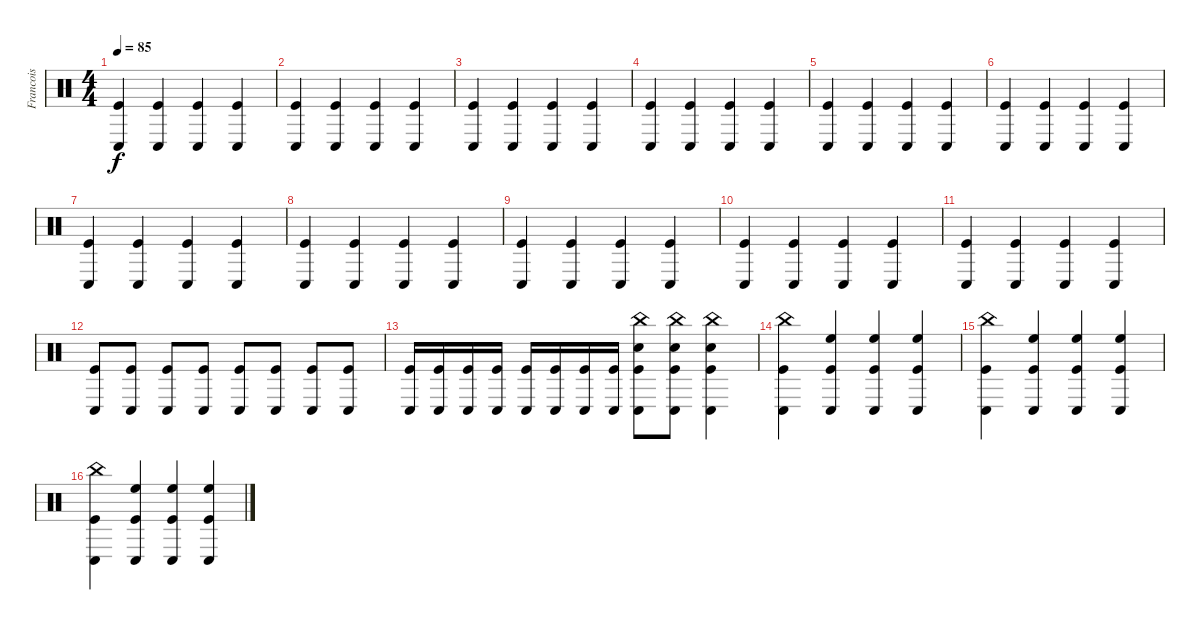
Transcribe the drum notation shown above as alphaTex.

\track ("Francois" "Francois") {instrument percussion}
\staff {score}
\articulation defaults
\ts (4 4)
\tempo 85
\clef neutral
\ks c
("Kick (hit)" "Conga low (hit)").4{dy f} ("Kick (hit)" "Conga low (hit)").4 ("Kick (hit)" "Conga low (hit)").4 ("Kick (hit)" "Conga low (hit)").4 |
("Kick (hit)" "Conga low (hit)").4 ("Kick (hit)" "Conga low (hit)").4 ("Kick (hit)" "Conga low (hit)").4 ("Kick (hit)" "Conga low (hit)").4 |
("Kick (hit)" "Conga low (hit)").4 ("Kick (hit)" "Conga low (hit)").4 ("Kick (hit)" "Conga low (hit)").4 ("Kick (hit)" "Conga low (hit)").4 |
("Kick (hit)" "Conga low (hit)").4 ("Kick (hit)" "Conga low (hit)").4 ("Kick (hit)" "Conga low (hit)").4 ("Kick (hit)" "Conga low (hit)").4 |
("Kick (hit)" "Conga low (hit)").4 ("Kick (hit)" "Conga low (hit)").4 ("Kick (hit)" "Conga low (hit)").4 ("Kick (hit)" "Conga low (hit)").4 |
("Kick (hit)" "Conga low (hit)").4 ("Kick (hit)" "Conga low (hit)").4 ("Kick (hit)" "Conga low (hit)").4 ("Kick (hit)" "Conga low (hit)").4 |
("Kick (hit)" "Conga low (hit)").4 ("Kick (hit)" "Conga low (hit)").4 ("Kick (hit)" "Conga low (hit)").4 ("Kick (hit)" "Conga low (hit)").4 |
("Kick (hit)" "Conga low (hit)").4 ("Kick (hit)" "Conga low (hit)").4 ("Kick (hit)" "Conga low (hit)").4 ("Kick (hit)" "Conga low (hit)").4 |
("Kick (hit)" "Conga low (hit)").4 ("Kick (hit)" "Conga low (hit)").4 ("Kick (hit)" "Conga low (hit)").4 ("Kick (hit)" "Conga low (hit)").4 |
("Kick (hit)" "Conga low (hit)").4 ("Kick (hit)" "Conga low (hit)").4 ("Kick (hit)" "Conga low (hit)").4 ("Kick (hit)" "Conga low (hit)").4 |
("Kick (hit)" "Conga low (hit)").4 ("Kick (hit)" "Conga low (hit)").4 ("Kick (hit)" "Conga low (hit)").4 ("Kick (hit)" "Conga low (hit)").4 |
("Kick (hit)" "Conga low (hit)").8 ("Kick (hit)" "Conga low (hit)").8 ("Kick (hit)" "Conga low (hit)").8 ("Kick (hit)" "Conga low (hit)").8 ("Kick (hit)" "Conga low (hit)").8 ("Kick (hit)" "Conga low (hit)").8 ("Kick (hit)" "Conga low (hit)").8 ("Kick (hit)" "Conga low (hit)").8 |
("Kick (hit)" "Conga low (hit)").16 ("Kick (hit)" "Conga low (hit)").16 ("Kick (hit)" "Conga low (hit)").16 ("Kick (hit)" "Conga low (hit)").16 ("Kick (hit)" "Conga low (hit)").16 ("Kick (hit)" "Conga low (hit)").16 ("Kick (hit)" "Conga low (hit)").16 ("Kick (hit)" "Conga low (hit)").16 ("Electric Snare (hit)" "China (hit)" "Kick (hit)" "Conga low (hit)").8 ("Electric Snare (hit)" "China (hit)" "Kick (hit)" "Conga low (hit)").8 ("Electric Snare (hit)" "China (hit)" "Kick (hit)" "Conga low (hit)").4 |
("China (hit)" "Kick (hit)" "Conga low (hit)").4 ("High Floor Tom (hit)" "Kick (hit)" "Conga low (hit)").4 ("High Floor Tom (hit)" "Kick (hit)" "Conga low (hit)").4 ("High Floor Tom (hit)" "Kick (hit)" "Conga low (hit)").4 |
("China (hit)" "Kick (hit)" "Conga low (hit)").4 ("High Floor Tom (hit)" "Kick (hit)" "Conga low (hit)").4 ("High Floor Tom (hit)" "Kick (hit)" "Conga low (hit)").4 ("High Floor Tom (hit)" "Kick (hit)" "Conga low (hit)").4 |
("China (hit)" "Kick (hit)" "Conga low (hit)").4 ("High Floor Tom (hit)" "Kick (hit)" "Conga low (hit)").4 ("High Floor Tom (hit)" "Kick (hit)" "Conga low (hit)").4 ("High Floor Tom (hit)" "Kick (hit)" "Conga low (hit)").4
